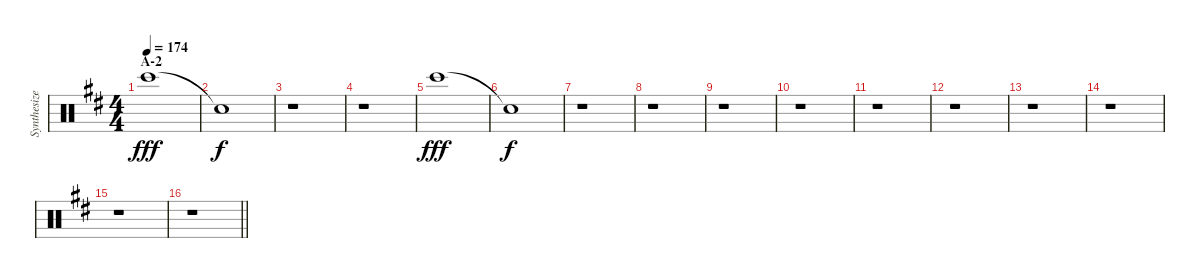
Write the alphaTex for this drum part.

\track ("Synthesized Slap" "Synthesize") {instrument percussion}
\staff {score}
\articulation defaults
\ts (4 4)
\section ("" "A-2")
\tempo 174
\clef neutral
\ks bminor "Bongo High (hit)".1{dy fff}
|
"Snare (hit)"{t}.1{dy f} |
r.1 |
r.1 |
"Bongo High (hit)".1{dy fff} |
"Snare (hit)"{t}.1{dy f} |
r.1 |
r.1 |
r.1 |
r.1 |
r.1 |
r.1 |
r.1 |
r.1 |
r.1 |
\barLineRight lightlight
r.1
